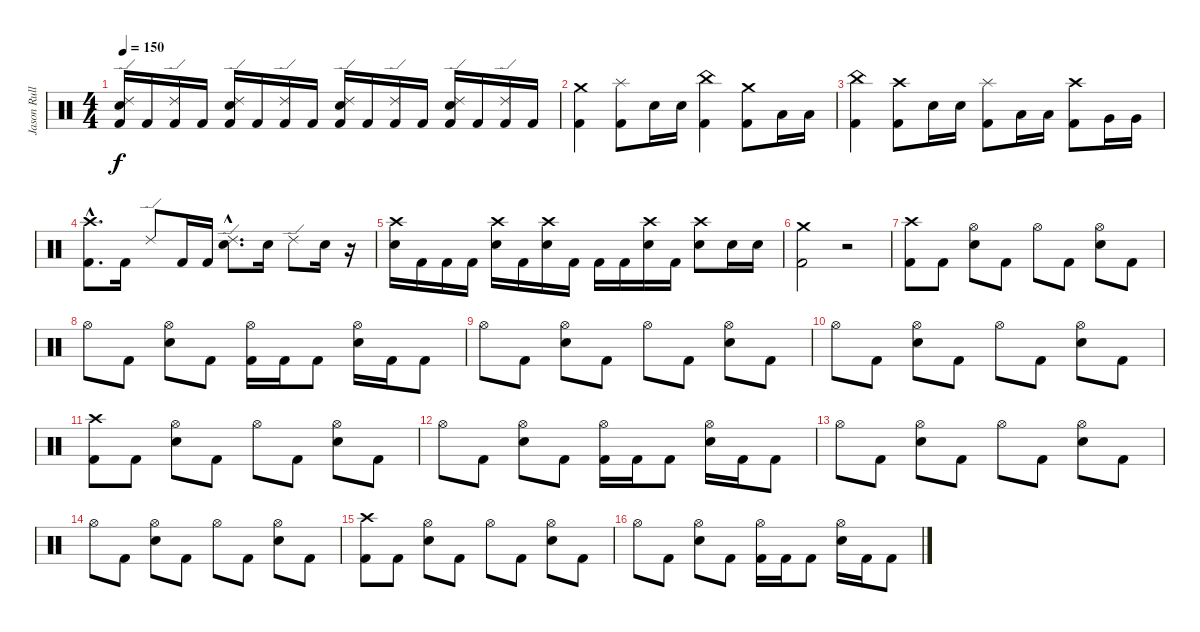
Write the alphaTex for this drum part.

\track ("Jason Rullo" "Jason Rull") {instrument percussion}
\staff {score}
\articulation defaults
\ts (4 4)
\tempo 150
\clef neutral
\ks c
("Ride (edge) 2" "Electric Snare (hit)" "Kick (hit) 2").16{dy f} "Kick (hit) 2".16 ("Ride (edge) 2" "Kick (hit) 2").16 "Kick (hit) 2".16 ("Ride (edge) 2" "Electric Snare (hit)" "Kick (hit) 2").16 "Kick (hit) 2".16 ("Ride (edge) 2" "Kick (hit) 2").16 "Kick (hit) 2".16 ("Ride (edge) 2" "Electric Snare (hit)" "Kick (hit) 2").16 "Kick (hit) 2".16 ("Ride (edge) 2" "Kick (hit) 2").16 "Kick (hit) 2".16 ("Ride (edge) 2" "Electric Snare (hit)" "Kick (hit) 2").16 "Kick (hit) 2".16 ("Ride (edge) 2" "Kick (hit) 2").16 "Kick (hit) 2".16 |
("Crash medium (hit)" "Kick (hit) 2").4 ("Splash (hit)" "Kick (hit) 2").8 "Electric Snare (hit)".16 "Electric Snare (hit)".16 ("China (hit)" "Kick (hit) 2").4 ("Crash medium (hit)" "Kick (hit) 2").8 "Low Tom (hit)".16 "Low Tom (hit)".16 |
("China (hit)" "Kick (hit) 2").4 ("Crash high (hit)" "Kick (hit) 2").8 "Electric Snare (hit)".16 "Electric Snare (hit)".16 ("Splash (hit)" "Kick (hit) 2").8 "Low Tom (hit)".16 "Low Tom (hit)".16 ("Crash high (hit)" "Kick (hit) 2").8 "Very Low Tom (hit)".16 "Very Low Tom (hit)".16 |
("Crash high (hit)" "Kick (hit) 2"{hac}).8{d} "Kick (hit) 2".16 "Ride (edge) 2".8 "Kick (hit) 2".16 "Kick (hit) 2".16 ("Ride (edge) 2" "Electric Snare (hit)"{hac}).8{d} "Electric Snare (hit)".16 "Ride (edge) 2".8 "Electric Snare (hit)".16 r.16 |
("Crash high (hit)" "Electric Snare (hit)").16 "Kick (hit) 2".16 "Kick (hit) 2".16 "Kick (hit) 2".16 ("Crash high (hit)" "Electric Snare (hit)").16 "Kick (hit) 2".16 ("Crash high (hit)" "Electric Snare (hit)").16 "Kick (hit) 2".16 "Kick (hit) 2".16 "Kick (hit) 2".16 ("Crash high (hit)" "Electric Snare (hit)").16 "Kick (hit) 2".16 ("Crash high (hit)" "Electric Snare (hit)").8 "Electric Snare (hit)".16 "Electric Snare (hit)".16 |
("Crash medium (hit)" "Kick (hit) 2").2 r.2 |
("Crash high (hit)" "Kick (hit) 2").8 "Kick (hit) 2".8 ("Hi-Hat (open)" "Electric Snare (hit)").8 "Kick (hit) 2".8 "Hi-Hat (open)".8 "Kick (hit) 2".8 ("Hi-Hat (open)" "Electric Snare (hit)").8 "Kick (hit) 2".8 |
"Hi-Hat (open)".8 "Kick (hit) 2".8 ("Hi-Hat (open)" "Electric Snare (hit)").8 "Kick (hit) 2".8 ("Hi-Hat (open)" "Kick (hit) 2").16 "Kick (hit) 2".16 "Kick (hit) 2".8 ("Hi-Hat (open)" "Electric Snare (hit)").16 "Kick (hit) 2".16 "Kick (hit) 2".8 |
"Hi-Hat (open)".8 "Kick (hit) 2".8 ("Hi-Hat (open)" "Electric Snare (hit)").8 "Kick (hit) 2".8 "Hi-Hat (open)".8 "Kick (hit) 2".8 ("Hi-Hat (open)" "Electric Snare (hit)").8 "Kick (hit) 2".8 |
"Hi-Hat (open)".8 "Kick (hit) 2".8 ("Hi-Hat (open)" "Electric Snare (hit)").8 "Kick (hit) 2".8 "Hi-Hat (open)".8 "Kick (hit) 2".8 ("Hi-Hat (open)" "Electric Snare (hit)").8 "Kick (hit) 2".8 |
("Crash high (hit)" "Kick (hit) 2").8 "Kick (hit) 2".8 ("Hi-Hat (open)" "Electric Snare (hit)").8 "Kick (hit) 2".8 "Hi-Hat (open)".8 "Kick (hit) 2".8 ("Hi-Hat (open)" "Electric Snare (hit)").8 "Kick (hit) 2".8 |
"Hi-Hat (open)".8 "Kick (hit) 2".8 ("Hi-Hat (open)" "Electric Snare (hit)").8 "Kick (hit) 2".8 ("Hi-Hat (open)" "Kick (hit) 2").16 "Kick (hit) 2".16 "Kick (hit) 2".8 ("Hi-Hat (open)" "Electric Snare (hit)").16 "Kick (hit) 2".16 "Kick (hit) 2".8 |
"Hi-Hat (open)".8 "Kick (hit) 2".8 ("Hi-Hat (open)" "Electric Snare (hit)").8 "Kick (hit) 2".8 "Hi-Hat (open)".8 "Kick (hit) 2".8 ("Hi-Hat (open)" "Electric Snare (hit)").8 "Kick (hit) 2".8 |
"Hi-Hat (open)".8 "Kick (hit) 2".8 ("Hi-Hat (open)" "Electric Snare (hit)").8 "Kick (hit) 2".8 "Hi-Hat (open)".8 "Kick (hit) 2".8 ("Hi-Hat (open)" "Electric Snare (hit)").8 "Kick (hit) 2".8 |
("Crash high (hit)" "Kick (hit) 2").8 "Kick (hit) 2".8 ("Hi-Hat (open)" "Electric Snare (hit)").8 "Kick (hit) 2".8 "Hi-Hat (open)".8 "Kick (hit) 2".8 ("Hi-Hat (open)" "Electric Snare (hit)").8 "Kick (hit) 2".8 |
"Hi-Hat (open)".8 "Kick (hit) 2".8 ("Hi-Hat (open)" "Electric Snare (hit)").8 "Kick (hit) 2".8 ("Hi-Hat (open)" "Kick (hit) 2").16 "Kick (hit) 2".16 "Kick (hit) 2".8 ("Hi-Hat (open)" "Electric Snare (hit)").16 "Kick (hit) 2".16 "Kick (hit) 2".8
